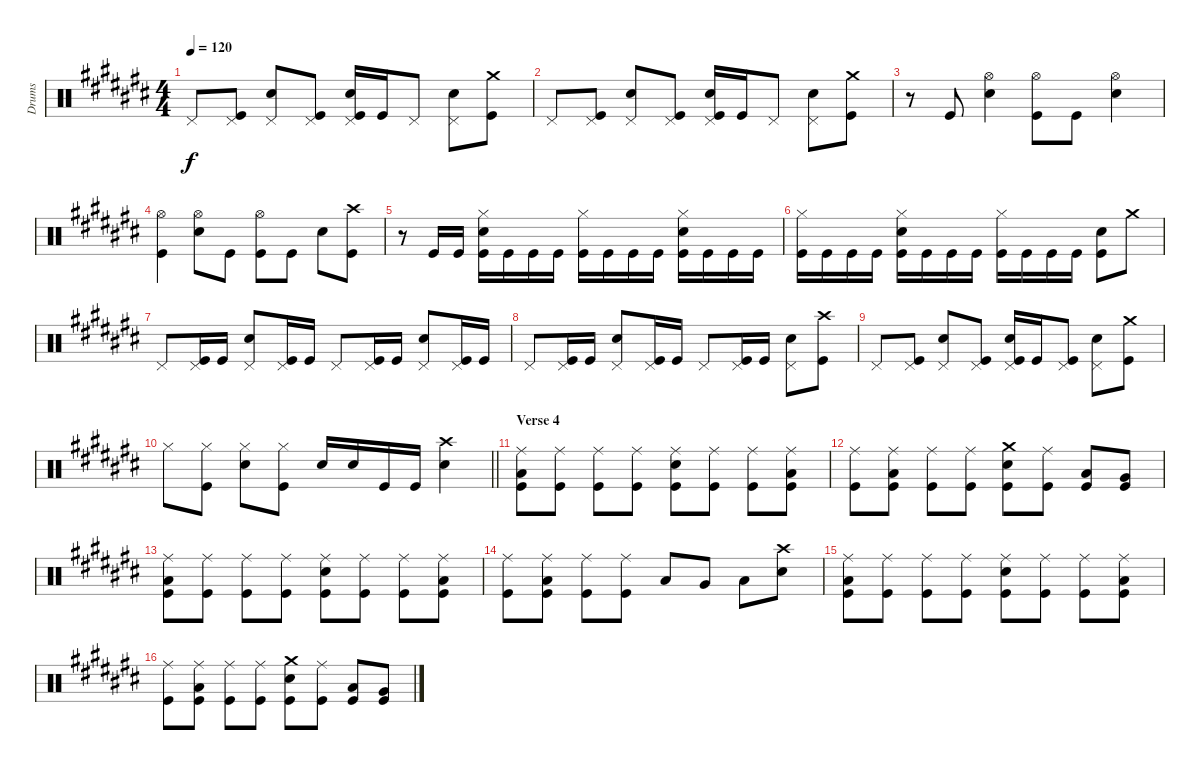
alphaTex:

\track ("Drums" "Drums") {instrument percussion}
\staff {score}
\articulation defaults
\ts (4 4)
\tempo 120
\clef neutral
\ks c# "Pedal Hi-Hat (hit)".8{dy f}
("Pedal Hi-Hat (hit)" "Kick (hit)").8 ("Pedal Hi-Hat (hit)" "Snare (hit) 2").8 ("Pedal Hi-Hat (hit)" "Kick (hit)").8 ("Pedal Hi-Hat (hit)" "Snare (hit) 2" "Kick (hit)").16 "Kick (hit)".16 "Pedal Hi-Hat (hit)".8 ("Pedal Hi-Hat (hit)" "Snare (hit) 2").8 ("Crash medium (hit)" "Kick (hit)").8 |
"Pedal Hi-Hat (hit)".8 ("Pedal Hi-Hat (hit)" "Kick (hit)").8 ("Pedal Hi-Hat (hit)" "Snare (hit) 2").8 ("Pedal Hi-Hat (hit)" "Kick (hit)").8 ("Pedal Hi-Hat (hit)" "Snare (hit) 2" "Kick (hit)").16 "Kick (hit)".16 "Pedal Hi-Hat (hit)".8 ("Pedal Hi-Hat (hit)" "Snare (hit) 2").8 ("Crash medium (hit)" "Kick (hit)").8 |
r.8 "Kick (hit)".8 ("Hi-Hat (open)" "Snare (hit) 2").4 ("Hi-Hat (open)" "Kick (hit)").8 "Kick (hit)".8 ("Hi-Hat (open)" "Snare (hit) 2").4 |
("Hi-Hat (open)" "Kick (hit)").4 ("Hi-Hat (open)" "Snare (hit) 2").8 "Kick (hit)".8 ("Hi-Hat (open)" "Kick (hit)").8 "Kick (hit)".8 "Snare (hit) 2".8 ("Crash high (hit)" "Kick (hit)").8 |
r.8 "Kick (hit)".16 "Kick (hit)".16 ("Hi-Hat (closed)" "Snare (hit) 2" "Kick (hit)").16 "Kick (hit)".16 "Kick (hit)".16 "Kick (hit)".16 ("Hi-Hat (closed)" "Kick (hit)").16 "Kick (hit)".16 "Kick (hit)".16 "Kick (hit)".16 ("Hi-Hat (closed)" "Snare (hit) 2" "Kick (hit)").16 "Kick (hit)".16 "Kick (hit)".16 "Kick (hit)".16 |
("Hi-Hat (closed)" "Kick (hit)").16 "Kick (hit)".16 "Kick (hit)".16 "Kick (hit)".16 ("Hi-Hat (closed)" "Snare (hit) 2" "Kick (hit)").16 "Kick (hit)".16 "Kick (hit)".16 "Kick (hit)".16 ("Hi-Hat (closed)" "Kick (hit)").16 "Kick (hit)".16 "Kick (hit)".16 "Kick (hit)".16 ("Snare (hit) 2" "Kick (hit)").8 "Crash medium (hit)".8 |
"Pedal Hi-Hat (hit)".8 ("Pedal Hi-Hat (hit)" "Kick (hit)").16 "Kick (hit)".16 ("Pedal Hi-Hat (hit)" "Snare (hit) 2").8 ("Pedal Hi-Hat (hit)" "Kick (hit)").16 "Kick (hit)".16 "Pedal Hi-Hat (hit)".8 ("Pedal Hi-Hat (hit)" "Kick (hit)").16 "Kick (hit)".16 ("Pedal Hi-Hat (hit)" "Snare (hit) 2").8 ("Pedal Hi-Hat (hit)" "Kick (hit)").16 "Kick (hit)".16 |
"Pedal Hi-Hat (hit)".8 ("Pedal Hi-Hat (hit)" "Kick (hit)").16 "Kick (hit)".16 ("Pedal Hi-Hat (hit)" "Snare (hit) 2").8 ("Pedal Hi-Hat (hit)" "Kick (hit)").16 "Kick (hit)".16 "Pedal Hi-Hat (hit)".8 ("Pedal Hi-Hat (hit)" "Kick (hit)").16 "Kick (hit)".16 ("Pedal Hi-Hat (hit)" "Snare (hit) 2").8 ("Crash high (hit)" "Kick (hit)").8 |
"Pedal Hi-Hat (hit)".8 ("Pedal Hi-Hat (hit)" "Kick (hit)").8 ("Pedal Hi-Hat (hit)" "Snare (hit) 2").8 ("Pedal Hi-Hat (hit)" "Kick (hit)").8 ("Pedal Hi-Hat (hit)" "Snare (hit) 2" "Kick (hit)").16 "Kick (hit)".16 ("Pedal Hi-Hat (hit)" "Kick (hit)").8 ("Pedal Hi-Hat (hit)" "Snare (hit) 2").8 ("Crash medium (hit)" "Kick (hit)").8 |
\barLineRight lightlight "Hi-Hat (closed)".8
("Hi-Hat (closed)" "Kick (hit)").8 ("Hi-Hat (closed)" "Snare (hit) 2").8 ("Hi-Hat (closed)" "Kick (hit)").8 "Snare (hit) 2".16 "Snare (hit) 2".16 "Kick (hit)".16 "Kick (hit)".16 ("Crash high (hit)" "Snare (hit) 2").4 |
\section ("" "Verse 4")
("Ride (middle)" "Low Tom (hit)" "Kick (hit)").8 ("Ride (middle)" "Kick (hit)").8 ("Ride (middle)" "Kick (hit)").8 ("Ride (middle)" "Kick (hit)").8 ("Ride (middle)" "Snare (hit) 2" "Kick (hit)").8 ("Ride (middle)" "Kick (hit)").8 ("Ride (middle)" "Kick (hit)").8 ("Ride (middle)" "Low Tom (hit)" "Kick (hit)").8 |
("Ride (middle)" "Kick (hit)").8 ("Ride (middle)" "Low Tom (hit)" "Kick (hit)").8 ("Ride (middle)" "Kick (hit)").8 ("Ride (middle)" "Kick (hit)").8 ("Crash medium (hit)" "Snare (hit) 2" "Kick (hit)").8 ("Ride (middle)" "Kick (hit)").8 ("Low Tom (hit)" "Kick (hit)").8 ("Very Low Tom (hit)" "Kick (hit)").8 |
("Ride (middle)" "Low Tom (hit)" "Kick (hit)").8 ("Ride (middle)" "Kick (hit)").8 ("Ride (middle)" "Kick (hit)").8 ("Ride (middle)" "Kick (hit)").8 ("Ride (middle)" "Snare (hit) 2" "Kick (hit)").8 ("Ride (middle)" "Kick (hit)").8 ("Ride (middle)" "Kick (hit)").8 ("Ride (middle)" "Low Tom (hit)" "Kick (hit)").8 |
("Ride (middle)" "Kick (hit)").8 ("Ride (middle)" "Low Tom (hit)" "Kick (hit)").8 ("Ride (middle)" "Kick (hit)").8 ("Ride (middle)" "Kick (hit)").8 "Low Tom (hit)".8 "Very Low Tom (hit)".8 "Low Floor Tom (hit)".8 ("Crash high (hit)" "Snare (hit) 2").8 |
("Ride (middle)" "Low Tom (hit)" "Kick (hit)").8 ("Ride (middle)" "Kick (hit)").8 ("Ride (middle)" "Kick (hit)").8 ("Ride (middle)" "Kick (hit)").8 ("Ride (middle)" "Snare (hit) 2" "Kick (hit)").8 ("Ride (middle)" "Kick (hit)").8 ("Ride (middle)" "Kick (hit)").8 ("Ride (middle)" "Low Tom (hit)" "Kick (hit)").8 |
("Ride (middle)" "Kick (hit)").8 ("Ride (middle)" "Low Tom (hit)" "Kick (hit)").8 ("Ride (middle)" "Kick (hit)").8 ("Ride (middle)" "Kick (hit)").8 ("Crash medium (hit)" "Snare (hit) 2" "Kick (hit)").8 ("Ride (middle)" "Kick (hit)").8 ("Low Tom (hit)" "Kick (hit)").8 ("Very Low Tom (hit)" "Kick (hit)").8
